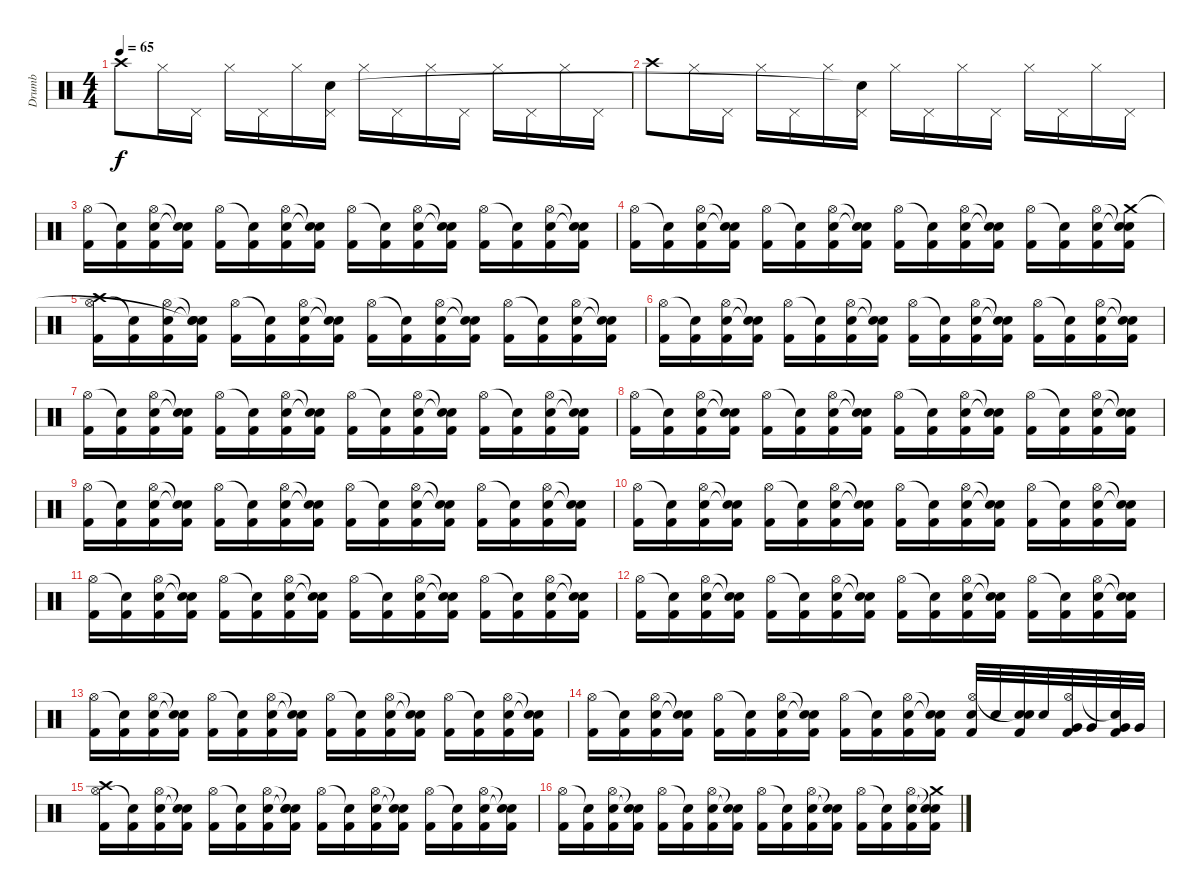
\track ("Drumb" "Drumb") {instrument percussion}
\staff {score}
\articulation defaults
\ts (4 4)
\tempo 65
\clef neutral
\ks c "Crash high (hit)".8{dy f} "Hi-Hat (closed)".16 "Pedal Hi-Hat (hit)".16 "Hi-Hat (closed)".16 "Pedal Hi-Hat (hit)".16 "Hi-Hat (closed)".16
("Pedal Hi-Hat (hit)" "Snare (hit)").16 "Hi-Hat (closed)".16 "Pedal Hi-Hat (hit)".16 "Hi-Hat (closed)".16 "Pedal Hi-Hat (hit)".16 "Hi-Hat (closed)".16 "Pedal Hi-Hat (hit)".16 "Hi-Hat (closed)".16 "Pedal Hi-Hat (hit)".16 |
"Crash high (hit)".8 "Hi-Hat (closed)".16 "Pedal Hi-Hat (hit)".16 "Hi-Hat (closed)".16 "Pedal Hi-Hat (hit)".16 "Hi-Hat (closed)".16 ("Pedal Hi-Hat (hit)" "Snare (hit)"{t}).16 "Hi-Hat (closed)".16 "Pedal Hi-Hat (hit)".16 "Hi-Hat (closed)".16 "Pedal Hi-Hat (hit)".16 "Hi-Hat (closed)".16 "Pedal Hi-Hat (hit)".16 "Hi-Hat (closed)".16 "Pedal Hi-Hat (hit)".16 |
("Kick (hit) 2" "Hi-Hat (open)").16 ("Kick (hit) 2" "Snare (hit)"{t}).16 ("Kick (hit) 2" "Electric Snare (hit)" "Hi-Hat (open)").16 ("Kick (hit) 2" "Snare (hit)"{t} "Snare (hit)"{t}).16 ("Kick (hit) 2" "Hi-Hat (open)").16 ("Kick (hit) 2" "Snare (hit)"{t}).16 ("Kick (hit) 2" "Electric Snare (hit)" "Hi-Hat (open)").16 ("Kick (hit) 2" "Snare (hit)"{t} "Snare (hit)"{t}).16 ("Kick (hit) 2" "Hi-Hat (open)").16 ("Kick (hit) 2" "Snare (hit)"{t}).16 ("Kick (hit) 2" "Electric Snare (hit)" "Hi-Hat (open)").16 ("Kick (hit) 2" "Snare (hit)"{t} "Snare (hit)"{t}).16 ("Kick (hit) 2" "Hi-Hat (open)").16 ("Kick (hit) 2" "Snare (hit)"{t}).16 ("Kick (hit) 2" "Electric Snare (hit)" "Hi-Hat (open)").16 ("Kick (hit) 2" "Snare (hit)"{t} "Snare (hit)"{t}).16 |
("Kick (hit) 2" "Hi-Hat (open)").16 ("Kick (hit) 2" "Snare (hit)"{t}).16 ("Kick (hit) 2" "Electric Snare (hit)" "Hi-Hat (open)").16 ("Kick (hit) 2" "Snare (hit)"{t} "Snare (hit)"{t}).16 ("Kick (hit) 2" "Hi-Hat (open)").16 ("Kick (hit) 2" "Snare (hit)"{t}).16 ("Kick (hit) 2" "Electric Snare (hit)" "Hi-Hat (open)").16 ("Kick (hit) 2" "Snare (hit)"{t} "Snare (hit)"{t}).16 ("Kick (hit) 2" "Hi-Hat (open)").16 ("Kick (hit) 2" "Snare (hit)"{t}).16 ("Kick (hit) 2" "Electric Snare (hit)" "Hi-Hat (open)").16 ("Kick (hit) 2" "Snare (hit)"{t} "Snare (hit)"{t}).16 ("Kick (hit) 2" "Hi-Hat (open)").16 ("Kick (hit) 2" "Snare (hit)"{t}).16 ("Kick (hit) 2" "Electric Snare (hit)" "Hi-Hat (open)").16 ("Kick (hit) 2" "Snare (hit)"{t} "Snare (hit)"{t} "Crash medium (hit)").16 |
("Kick (hit) 2" "Hi-Hat (open)" "Crash high (hit)").16 ("Kick (hit) 2" "Snare (hit)"{t}).16 ("Kick (hit) 2" "Electric Snare (hit)" "Hi-Hat (open)").16 ("Kick (hit) 2" "Snare (hit)"{t} "Snare (hit)"{t} "Snare (hit)"{t}).16 ("Kick (hit) 2" "Hi-Hat (open)").16 ("Kick (hit) 2" "Snare (hit)"{t}).16 ("Kick (hit) 2" "Electric Snare (hit)" "Hi-Hat (open)").16 ("Kick (hit) 2" "Snare (hit)"{t} "Snare (hit)"{t}).16 ("Kick (hit) 2" "Hi-Hat (open)").16 ("Kick (hit) 2" "Snare (hit)"{t}).16 ("Kick (hit) 2" "Electric Snare (hit)" "Hi-Hat (open)").16 ("Kick (hit) 2" "Snare (hit)"{t} "Snare (hit)"{t}).16 ("Kick (hit) 2" "Hi-Hat (open)").16 ("Kick (hit) 2" "Snare (hit)"{t}).16 ("Kick (hit) 2" "Electric Snare (hit)" "Hi-Hat (open)").16 ("Kick (hit) 2" "Snare (hit)"{t} "Snare (hit)"{t}).16 |
("Kick (hit) 2" "Hi-Hat (open)").16 ("Kick (hit) 2" "Snare (hit)"{t}).16 ("Kick (hit) 2" "Electric Snare (hit)" "Hi-Hat (open)").16 ("Kick (hit) 2" "Snare (hit)"{t} "Snare (hit)"{t}).16 ("Kick (hit) 2" "Hi-Hat (open)").16 ("Kick (hit) 2" "Snare (hit)"{t}).16 ("Kick (hit) 2" "Electric Snare (hit)" "Hi-Hat (open)").16 ("Kick (hit) 2" "Snare (hit)"{t} "Snare (hit)"{t}).16 ("Kick (hit) 2" "Hi-Hat (open)").16 ("Kick (hit) 2" "Snare (hit)"{t}).16 ("Kick (hit) 2" "Electric Snare (hit)" "Hi-Hat (open)").16 ("Kick (hit) 2" "Snare (hit)"{t} "Snare (hit)"{t}).16 ("Kick (hit) 2" "Hi-Hat (open)").16 ("Kick (hit) 2" "Snare (hit)"{t}).16 ("Kick (hit) 2" "Electric Snare (hit)" "Hi-Hat (open)").16 ("Kick (hit) 2" "Snare (hit)"{t} "Snare (hit)"{t}).16 |
("Kick (hit) 2" "Hi-Hat (open)").16 ("Kick (hit) 2" "Snare (hit)"{t}).16 ("Kick (hit) 2" "Electric Snare (hit)" "Hi-Hat (open)").16 ("Kick (hit) 2" "Snare (hit)"{t} "Snare (hit)"{t}).16 ("Kick (hit) 2" "Hi-Hat (open)").16 ("Kick (hit) 2" "Snare (hit)"{t}).16 ("Kick (hit) 2" "Electric Snare (hit)" "Hi-Hat (open)").16 ("Kick (hit) 2" "Snare (hit)"{t} "Snare (hit)"{t}).16 ("Kick (hit) 2" "Hi-Hat (open)").16 ("Kick (hit) 2" "Snare (hit)"{t}).16 ("Kick (hit) 2" "Electric Snare (hit)" "Hi-Hat (open)").16 ("Kick (hit) 2" "Snare (hit)"{t} "Snare (hit)"{t}).16 ("Kick (hit) 2" "Hi-Hat (open)").16 ("Kick (hit) 2" "Snare (hit)"{t}).16 ("Kick (hit) 2" "Electric Snare (hit)" "Hi-Hat (open)").16 ("Kick (hit) 2" "Snare (hit)"{t} "Snare (hit)"{t}).16 |
("Kick (hit) 2" "Hi-Hat (open)").16 ("Kick (hit) 2" "Snare (hit)"{t}).16 ("Kick (hit) 2" "Electric Snare (hit)" "Hi-Hat (open)").16 ("Kick (hit) 2" "Snare (hit)"{t} "Snare (hit)"{t}).16 ("Kick (hit) 2" "Hi-Hat (open)").16 ("Kick (hit) 2" "Snare (hit)"{t}).16 ("Kick (hit) 2" "Electric Snare (hit)" "Hi-Hat (open)").16 ("Kick (hit) 2" "Snare (hit)"{t} "Snare (hit)"{t}).16 ("Kick (hit) 2" "Hi-Hat (open)").16 ("Kick (hit) 2" "Snare (hit)"{t}).16 ("Kick (hit) 2" "Electric Snare (hit)" "Hi-Hat (open)").16 ("Kick (hit) 2" "Snare (hit)"{t} "Snare (hit)"{t}).16 ("Kick (hit) 2" "Hi-Hat (open)").16 ("Kick (hit) 2" "Snare (hit)"{t}).16 ("Kick (hit) 2" "Electric Snare (hit)" "Hi-Hat (open)").16 ("Kick (hit) 2" "Snare (hit)"{t} "Snare (hit)"{t}).16 |
("Kick (hit) 2" "Hi-Hat (open)").16 ("Kick (hit) 2" "Snare (hit)"{t}).16 ("Kick (hit) 2" "Electric Snare (hit)" "Hi-Hat (open)").16 ("Kick (hit) 2" "Snare (hit)"{t} "Snare (hit)"{t}).16 ("Kick (hit) 2" "Hi-Hat (open)").16 ("Kick (hit) 2" "Snare (hit)"{t}).16 ("Kick (hit) 2" "Electric Snare (hit)" "Hi-Hat (open)").16 ("Kick (hit) 2" "Snare (hit)"{t} "Snare (hit)"{t}).16 ("Kick (hit) 2" "Hi-Hat (open)").16 ("Kick (hit) 2" "Snare (hit)"{t}).16 ("Kick (hit) 2" "Electric Snare (hit)" "Hi-Hat (open)").16 ("Kick (hit) 2" "Snare (hit)"{t} "Snare (hit)"{t}).16 ("Kick (hit) 2" "Hi-Hat (open)").16 ("Kick (hit) 2" "Snare (hit)"{t}).16 ("Kick (hit) 2" "Electric Snare (hit)" "Hi-Hat (open)").16 ("Kick (hit) 2" "Snare (hit)"{t} "Snare (hit)"{t}).16 |
("Kick (hit) 2" "Hi-Hat (open)").16 ("Kick (hit) 2" "Snare (hit)"{t}).16 ("Kick (hit) 2" "Electric Snare (hit)" "Hi-Hat (open)").16 ("Kick (hit) 2" "Snare (hit)"{t} "Snare (hit)"{t}).16 ("Kick (hit) 2" "Hi-Hat (open)").16 ("Kick (hit) 2" "Snare (hit)"{t}).16 ("Kick (hit) 2" "Electric Snare (hit)" "Hi-Hat (open)").16 ("Kick (hit) 2" "Snare (hit)"{t} "Snare (hit)"{t}).16 ("Kick (hit) 2" "Hi-Hat (open)").16 ("Kick (hit) 2" "Snare (hit)"{t}).16 ("Kick (hit) 2" "Electric Snare (hit)" "Hi-Hat (open)").16 ("Kick (hit) 2" "Snare (hit)"{t} "Snare (hit)"{t}).16 ("Kick (hit) 2" "Hi-Hat (open)").16 ("Kick (hit) 2" "Snare (hit)"{t}).16 ("Kick (hit) 2" "Electric Snare (hit)" "Hi-Hat (open)").16 ("Kick (hit) 2" "Snare (hit)"{t} "Snare (hit)"{t}).16 |
("Kick (hit) 2" "Hi-Hat (open)").16 ("Kick (hit) 2" "Snare (hit)"{t}).16 ("Kick (hit) 2" "Electric Snare (hit)" "Hi-Hat (open)").16 ("Kick (hit) 2" "Snare (hit)"{t} "Snare (hit)"{t}).16 ("Kick (hit) 2" "Hi-Hat (open)").16 ("Kick (hit) 2" "Snare (hit)"{t}).16 ("Kick (hit) 2" "Electric Snare (hit)" "Hi-Hat (open)").16 ("Kick (hit) 2" "Snare (hit)"{t} "Snare (hit)"{t}).16 ("Kick (hit) 2" "Hi-Hat (open)").16 ("Kick (hit) 2" "Snare (hit)"{t}).16 ("Kick (hit) 2" "Electric Snare (hit)" "Hi-Hat (open)").16 ("Kick (hit) 2" "Snare (hit)"{t} "Snare (hit)"{t}).16 ("Kick (hit) 2" "Hi-Hat (open)").16 ("Kick (hit) 2" "Snare (hit)"{t}).16 ("Kick (hit) 2" "Electric Snare (hit)" "Hi-Hat (open)").16 ("Kick (hit) 2" "Snare (hit)"{t} "Snare (hit)"{t}).16 |
("Kick (hit) 2" "Hi-Hat (open)").16 ("Kick (hit) 2" "Snare (hit)"{t}).16 ("Kick (hit) 2" "Electric Snare (hit)" "Hi-Hat (open)").16 ("Kick (hit) 2" "Snare (hit)"{t} "Snare (hit)"{t}).16 ("Kick (hit) 2" "Hi-Hat (open)").16 ("Kick (hit) 2" "Snare (hit)"{t}).16 ("Kick (hit) 2" "Electric Snare (hit)" "Hi-Hat (open)").16 ("Kick (hit) 2" "Snare (hit)"{t} "Snare (hit)"{t}).16 ("Kick (hit) 2" "Hi-Hat (open)").16 ("Kick (hit) 2" "Snare (hit)"{t}).16 ("Kick (hit) 2" "Electric Snare (hit)" "Hi-Hat (open)").16 ("Kick (hit) 2" "Snare (hit)"{t} "Snare (hit)"{t}).16 ("Kick (hit) 2" "Hi-Hat (open)").16 ("Kick (hit) 2" "Snare (hit)"{t}).16 ("Kick (hit) 2" "Electric Snare (hit)" "Hi-Hat (open)").16 ("Kick (hit) 2" "Snare (hit)"{t} "Snare (hit)"{t}).16 |
("Kick (hit) 2" "Hi-Hat (open)").16 ("Kick (hit) 2" "Snare (hit)"{t}).16 ("Kick (hit) 2" "Electric Snare (hit)" "Hi-Hat (open)").16 ("Kick (hit) 2" "Snare (hit)"{t} "Snare (hit)"{t}).16 ("Kick (hit) 2" "Hi-Hat (open)").16 ("Kick (hit) 2" "Snare (hit)"{t}).16 ("Kick (hit) 2" "Electric Snare (hit)" "Hi-Hat (open)").16 ("Kick (hit) 2" "Snare (hit)"{t} "Snare (hit)"{t}).16 ("Kick (hit) 2" "Hi-Hat (open)").16 ("Kick (hit) 2" "Snare (hit)"{t}).16 ("Kick (hit) 2" "Electric Snare (hit)" "Hi-Hat (open)").16 ("Kick (hit) 2" "Snare (hit)"{t} "Snare (hit)"{t}).16 ("Kick (hit) 2" "Hi-Hat (open)").16 ("Kick (hit) 2" "Snare (hit)"{t}).16 ("Kick (hit) 2" "Electric Snare (hit)" "Hi-Hat (open)").16 ("Kick (hit) 2" "Snare (hit)"{t} "Snare (hit)"{t}).16 |
("Kick (hit) 2" "Hi-Hat (open)").16 ("Kick (hit) 2" "Snare (hit)"{t}).16 ("Kick (hit) 2" "Electric Snare (hit)" "Hi-Hat (open)").16 ("Kick (hit) 2" "Snare (hit)"{t} "Snare (hit)"{t}).16 ("Kick (hit) 2" "Hi-Hat (open)").16 ("Kick (hit) 2" "Snare (hit)"{t}).16 ("Kick (hit) 2" "Electric Snare (hit)" "Hi-Hat (open)").16 ("Kick (hit) 2" "Snare (hit)"{t} "Snare (hit)"{t}).16 ("Kick (hit) 2" "Hi-Hat (open)").16 ("Kick (hit) 2" "Snare (hit)"{t}).16 ("Kick (hit) 2" "Electric Snare (hit)" "Hi-Hat (open)").16 ("Kick (hit) 2" "Snare (hit)"{t} "Snare (hit)"{t}).16 ("Kick (hit) 2" "Electric Snare (hit)" "Hi-Hat (open)").32 "Electric Snare (hit)".32 ("Kick (hit) 2" "Electric Snare (hit)" "Snare (hit)"{t}).32 "Electric Snare (hit)".32 ("Kick (hit) 2" "Very Low Tom (hit)" "Hi-Hat (open)").32 "Very Low Tom (hit)".32 ("Kick (hit) 2" "Very Low Tom (hit)" "Snare (hit)"{t}).32 "Very Low Tom (hit)".32 |
("Kick (hit) 2" "Hi-Hat (open)" "Crash high (hit)").16 ("Kick (hit) 2" "Snare (hit)"{t}).16 ("Kick (hit) 2" "Electric Snare (hit)" "Hi-Hat (open)").16 ("Kick (hit) 2" "Snare (hit)"{t} "Snare (hit)"{t}).16 ("Kick (hit) 2" "Hi-Hat (open)").16 ("Kick (hit) 2" "Snare (hit)"{t}).16 ("Kick (hit) 2" "Electric Snare (hit)" "Hi-Hat (open)").16 ("Kick (hit) 2" "Snare (hit)"{t} "Snare (hit)"{t} "Snare (hit)").16 ("Kick (hit) 2" "Hi-Hat (open)").16 ("Kick (hit) 2" "Snare (hit)"{t}).16 ("Kick (hit) 2" "Electric Snare (hit)" "Hi-Hat (open)").16 ("Kick (hit) 2" "Snare (hit)"{t} "Snare (hit)"{t}).16 ("Kick (hit) 2" "Hi-Hat (open)").16 ("Kick (hit) 2" "Snare (hit)"{t}).16 ("Kick (hit) 2" "Electric Snare (hit)" "Hi-Hat (open)").16 ("Kick (hit) 2" "Snare (hit)"{t} "Snare (hit)"{t}).16 |
("Kick (hit) 2" "Hi-Hat (open)").16 ("Kick (hit) 2" "Snare (hit)"{t}).16 ("Kick (hit) 2" "Electric Snare (hit)" "Hi-Hat (open)").16 ("Kick (hit) 2" "Snare (hit)"{t} "Snare (hit)"{t}).16 ("Kick (hit) 2" "Hi-Hat (open)").16 ("Kick (hit) 2" "Snare (hit)"{t}).16 ("Kick (hit) 2" "Electric Snare (hit)" "Hi-Hat (open)").16 ("Kick (hit) 2" "Snare (hit)"{t} "Snare (hit)"{t}).16 ("Kick (hit) 2" "Hi-Hat (open)").16 ("Kick (hit) 2" "Snare (hit)"{t}).16 ("Kick (hit) 2" "Electric Snare (hit)" "Hi-Hat (open)").16 ("Kick (hit) 2" "Snare (hit)"{t} "Snare (hit)"{t}).16 ("Kick (hit) 2" "Hi-Hat (open)").16 ("Kick (hit) 2" "Snare (hit)"{t}).16 ("Kick (hit) 2" "Electric Snare (hit)" "Hi-Hat (open)").16 ("Kick (hit) 2" "Snare (hit)"{t} "Snare (hit)"{t} "Crash medium (hit)").16
